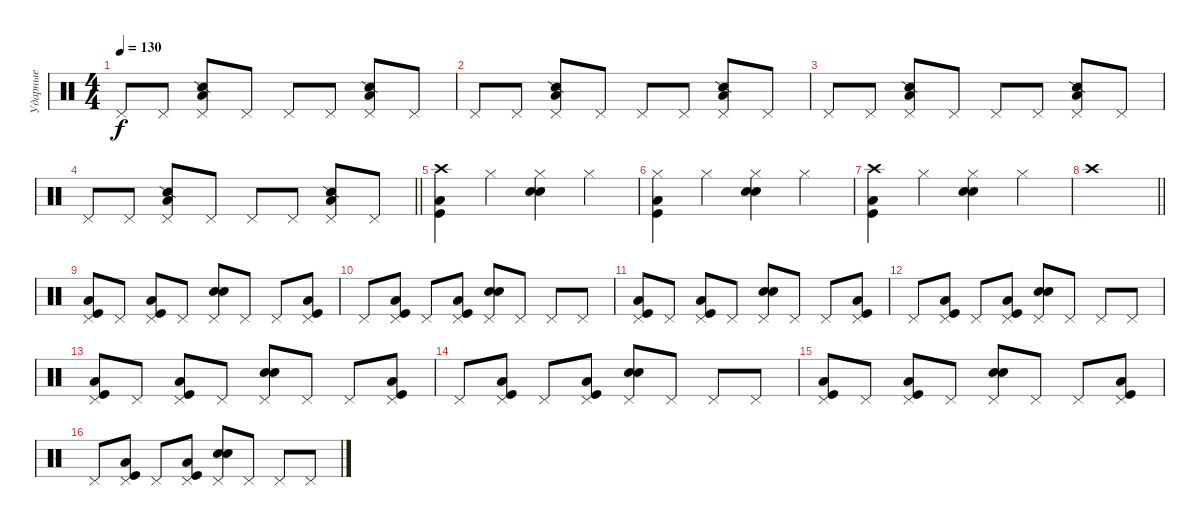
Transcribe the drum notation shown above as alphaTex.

\track ("Ударные" "Ударные") {instrument percussion}
\staff {score}
\articulation defaults
\ts (4 4)
\tempo 130
\clef neutral
\ks c "Pedal Hi-Hat (hit)".8{dy f} "Pedal Hi-Hat (hit)".8
("Pedal Hi-Hat (hit)" "Low Floor Tom (hit)" "Snare (side stick) 2").8 "Pedal Hi-Hat (hit)".8 "Pedal Hi-Hat (hit)".8 "Pedal Hi-Hat (hit)".8 ("Pedal Hi-Hat (hit)" "Low Floor Tom (hit)" "Snare (side stick) 2").8 "Pedal Hi-Hat (hit)".8 |
"Pedal Hi-Hat (hit)".8 "Pedal Hi-Hat (hit)".8 ("Pedal Hi-Hat (hit)" "Low Floor Tom (hit)" "Snare (side stick) 2").8 "Pedal Hi-Hat (hit)".8 "Pedal Hi-Hat (hit)".8 "Pedal Hi-Hat (hit)".8 ("Pedal Hi-Hat (hit)" "Low Floor Tom (hit)" "Snare (side stick) 2").8 "Pedal Hi-Hat (hit)".8 |
"Pedal Hi-Hat (hit)".8 "Pedal Hi-Hat (hit)".8 ("Pedal Hi-Hat (hit)" "Low Floor Tom (hit)" "Snare (side stick) 2").8 "Pedal Hi-Hat (hit)".8 "Pedal Hi-Hat (hit)".8 "Pedal Hi-Hat (hit)".8 ("Pedal Hi-Hat (hit)" "Low Floor Tom (hit)" "Snare (side stick) 2").8 "Pedal Hi-Hat (hit)".8 |
\barLineRight lightlight "Pedal Hi-Hat (hit)".8 "Pedal Hi-Hat (hit)".8
("Pedal Hi-Hat (hit)" "Low Floor Tom (hit)" "Snare (side stick) 2").8 "Pedal Hi-Hat (hit)".8 "Pedal Hi-Hat (hit)".8 "Pedal Hi-Hat (hit)".8 ("Pedal Hi-Hat (hit)" "Low Floor Tom (hit)" "Snare (side stick) 2").8 "Pedal Hi-Hat (hit)".8 |
("Crash high (hit)" "Low Tom (hit)" "Kick (hit)").4 "Hi-Hat (closed)".4 ("Hi-Hat (closed)" "Electric Snare (hit)" "Snare (hit) 2").4 "Hi-Hat (closed)".4 |
("Hi-Hat (closed)" "Low Tom (hit)" "Kick (hit)").4 "Hi-Hat (closed)".4 ("Hi-Hat (closed)" "Electric Snare (hit)" "Snare (hit) 2").4 "Hi-Hat (closed)".4 |
("Crash high (hit)" "Low Tom (hit)" "Kick (hit)").4 "Hi-Hat (closed)".4 ("Hi-Hat (closed)" "Electric Snare (hit)" "Snare (hit) 2").4 "Hi-Hat (closed)".4 |
\barLineRight lightlight "Crash high (hit)".1
|
("Pedal Hi-Hat (hit)" "Low Tom (hit)" "Kick (hit)").8 "Pedal Hi-Hat (hit)".8 ("Pedal Hi-Hat (hit)" "Low Tom (hit)" "Kick (hit)").8 "Pedal Hi-Hat (hit)".8 ("Pedal Hi-Hat (hit)" "Electric Snare (hit)" "Snare (hit) 2").8 "Pedal Hi-Hat (hit)".8 "Pedal Hi-Hat (hit)".8 ("Pedal Hi-Hat (hit)" "Low Tom (hit)" "Kick (hit)").8 |
"Pedal Hi-Hat (hit)".8 ("Pedal Hi-Hat (hit)" "Low Tom (hit)" "Kick (hit)").8 "Pedal Hi-Hat (hit)".8 ("Pedal Hi-Hat (hit)" "Low Tom (hit)" "Kick (hit)").8 ("Pedal Hi-Hat (hit)" "Electric Snare (hit)" "Snare (hit) 2").8 "Pedal Hi-Hat (hit)".8 "Pedal Hi-Hat (hit)".8 "Pedal Hi-Hat (hit)".8 |
("Pedal Hi-Hat (hit)" "Low Tom (hit)" "Kick (hit)").8 "Pedal Hi-Hat (hit)".8 ("Pedal Hi-Hat (hit)" "Low Tom (hit)" "Kick (hit)").8 "Pedal Hi-Hat (hit)".8 ("Pedal Hi-Hat (hit)" "Electric Snare (hit)" "Snare (hit) 2").8 "Pedal Hi-Hat (hit)".8 "Pedal Hi-Hat (hit)".8 ("Pedal Hi-Hat (hit)" "Low Tom (hit)" "Kick (hit)").8 |
"Pedal Hi-Hat (hit)".8 ("Pedal Hi-Hat (hit)" "Low Tom (hit)" "Kick (hit)").8 "Pedal Hi-Hat (hit)".8 ("Pedal Hi-Hat (hit)" "Low Tom (hit)" "Kick (hit)").8 ("Pedal Hi-Hat (hit)" "Electric Snare (hit)" "Snare (hit) 2").8 "Pedal Hi-Hat (hit)".8 "Pedal Hi-Hat (hit)".8 "Pedal Hi-Hat (hit)".8 |
("Pedal Hi-Hat (hit)" "Low Tom (hit)" "Kick (hit)").8 "Pedal Hi-Hat (hit)".8 ("Pedal Hi-Hat (hit)" "Low Tom (hit)" "Kick (hit)").8 "Pedal Hi-Hat (hit)".8 ("Pedal Hi-Hat (hit)" "Electric Snare (hit)" "Snare (hit) 2").8 "Pedal Hi-Hat (hit)".8 "Pedal Hi-Hat (hit)".8 ("Pedal Hi-Hat (hit)" "Low Tom (hit)" "Kick (hit)").8 |
"Pedal Hi-Hat (hit)".8 ("Pedal Hi-Hat (hit)" "Low Tom (hit)" "Kick (hit)").8 "Pedal Hi-Hat (hit)".8 ("Pedal Hi-Hat (hit)" "Low Tom (hit)" "Kick (hit)").8 ("Pedal Hi-Hat (hit)" "Electric Snare (hit)" "Snare (hit) 2").8 "Pedal Hi-Hat (hit)".8 "Pedal Hi-Hat (hit)".8 "Pedal Hi-Hat (hit)".8 |
("Pedal Hi-Hat (hit)" "Low Tom (hit)" "Kick (hit)").8 "Pedal Hi-Hat (hit)".8 ("Pedal Hi-Hat (hit)" "Low Tom (hit)" "Kick (hit)").8 "Pedal Hi-Hat (hit)".8 ("Pedal Hi-Hat (hit)" "Electric Snare (hit)" "Snare (hit) 2").8 "Pedal Hi-Hat (hit)".8 "Pedal Hi-Hat (hit)".8 ("Pedal Hi-Hat (hit)" "Low Tom (hit)" "Kick (hit)").8 |
"Pedal Hi-Hat (hit)".8 ("Pedal Hi-Hat (hit)" "Low Tom (hit)" "Kick (hit)").8 "Pedal Hi-Hat (hit)".8 ("Pedal Hi-Hat (hit)" "Low Tom (hit)" "Kick (hit)").8 ("Pedal Hi-Hat (hit)" "Electric Snare (hit)" "Snare (hit) 2").8 "Pedal Hi-Hat (hit)".8 "Pedal Hi-Hat (hit)".8 "Pedal Hi-Hat (hit)".8
